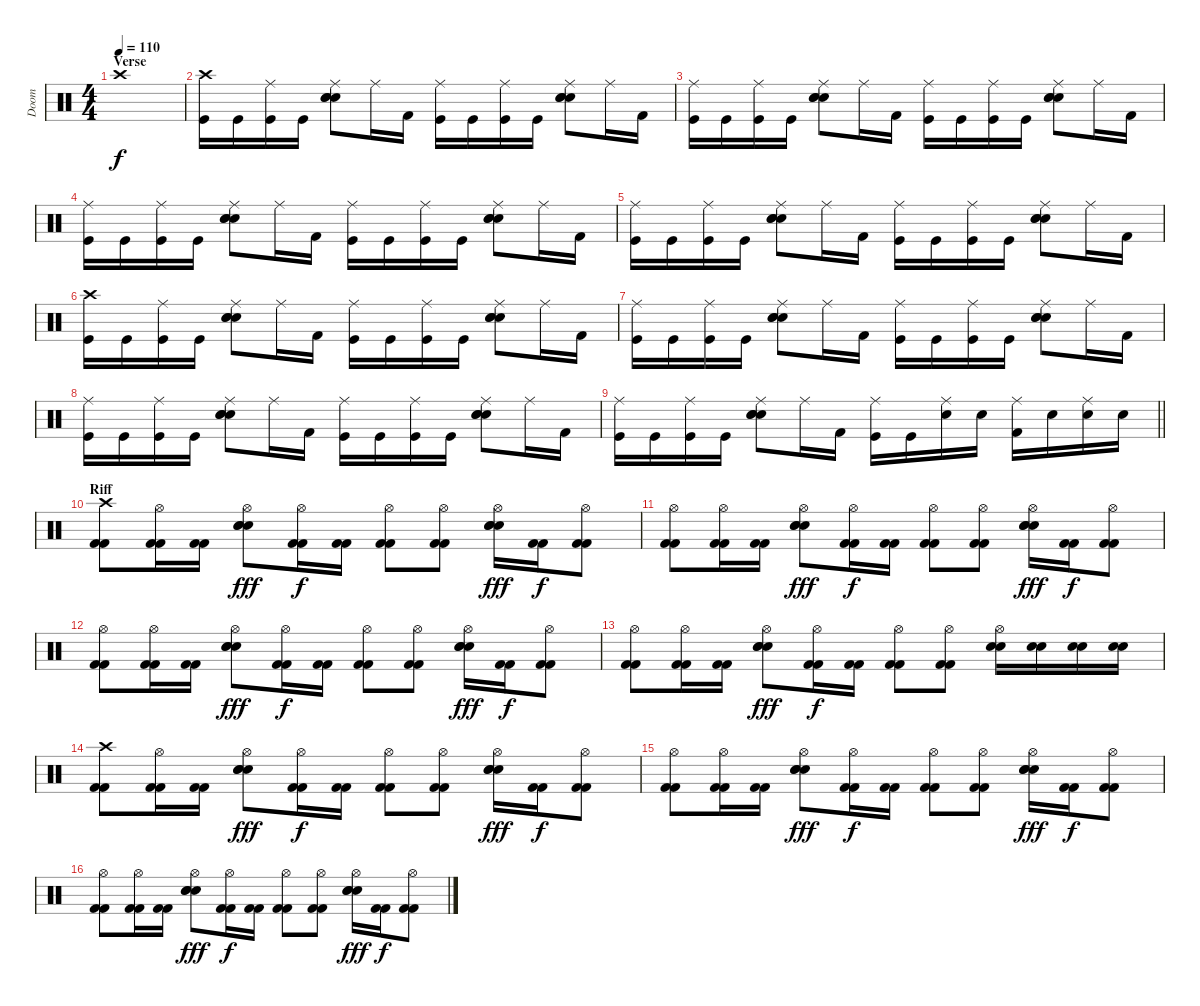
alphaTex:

\track ("Doom" "Doom") {instrument percussion}
\staff {score}
\articulation defaults
\ts (4 4)
\section ("" "Verse")
\tempo 110
\clef neutral
\ks c "Crash high (hit)".1{dy f}
|
("Kick (hit)" "Crash high (hit)").16 "Kick (hit)".16 ("Kick (hit)" "Ride (middle)").16 "Kick (hit)".16 ("Electric Snare (hit)" "Electric Snare (hit)" "Electric Snare (hit)" "Ride (middle)").8 "Ride (middle)".16 "Kick (hit) 2".16 ("Kick (hit)" "Ride (middle)").16 "Kick (hit)".16 ("Kick (hit)" "Ride (middle)").16 "Kick (hit)".16 ("Electric Snare (hit)" "Electric Snare (hit)" "Electric Snare (hit)" "Ride (middle)").8 "Ride (middle)".16 "Kick (hit) 2".16 |
("Kick (hit)" "Ride (middle)").16 "Kick (hit)".16 ("Kick (hit)" "Ride (middle)").16 "Kick (hit)".16 ("Electric Snare (hit)" "Electric Snare (hit)" "Electric Snare (hit)" "Ride (middle)").8 "Ride (middle)".16 "Kick (hit) 2".16 ("Kick (hit)" "Ride (middle)").16 "Kick (hit)".16 ("Kick (hit)" "Ride (middle)").16 "Kick (hit)".16 ("Electric Snare (hit)" "Electric Snare (hit)" "Electric Snare (hit)" "Ride (middle)").8 "Ride (middle)".16 "Kick (hit) 2".16 |
("Kick (hit)" "Ride (middle)").16 "Kick (hit)".16 ("Kick (hit)" "Ride (middle)").16 "Kick (hit)".16 ("Electric Snare (hit)" "Electric Snare (hit)" "Electric Snare (hit)" "Ride (middle)").8 "Ride (middle)".16 "Kick (hit) 2".16 ("Kick (hit)" "Ride (middle)").16 "Kick (hit)".16 ("Kick (hit)" "Ride (middle)").16 "Kick (hit)".16 ("Electric Snare (hit)" "Electric Snare (hit)" "Electric Snare (hit)" "Ride (middle)").8 "Ride (middle)".16 "Kick (hit) 2".16 |
("Kick (hit)" "Ride (middle)").16 "Kick (hit)".16 ("Kick (hit)" "Ride (middle)").16 "Kick (hit)".16 ("Electric Snare (hit)" "Electric Snare (hit)" "Electric Snare (hit)" "Ride (middle)").8 "Ride (middle)".16 "Kick (hit) 2".16 ("Kick (hit)" "Ride (middle)").16 "Kick (hit)".16 ("Kick (hit)" "Ride (middle)").16 "Kick (hit)".16 ("Electric Snare (hit)" "Electric Snare (hit)" "Electric Snare (hit)" "Ride (middle)").8 "Ride (middle)".16 "Kick (hit) 2".16 |
("Kick (hit)" "Crash high (hit)").16 "Kick (hit)".16 ("Kick (hit)" "Ride (middle)").16 "Kick (hit)".16 ("Electric Snare (hit)" "Electric Snare (hit)" "Electric Snare (hit)" "Ride (middle)").8 "Ride (middle)".16 "Kick (hit) 2".16 ("Kick (hit)" "Ride (middle)").16 "Kick (hit)".16 ("Kick (hit)" "Ride (middle)").16 "Kick (hit)".16 ("Electric Snare (hit)" "Electric Snare (hit)" "Electric Snare (hit)" "Ride (middle)").8 "Ride (middle)".16 "Kick (hit) 2".16 |
("Kick (hit)" "Ride (middle)").16 "Kick (hit)".16 ("Kick (hit)" "Ride (middle)").16 "Kick (hit)".16 ("Electric Snare (hit)" "Electric Snare (hit)" "Electric Snare (hit)" "Ride (middle)").8 "Ride (middle)".16 "Kick (hit) 2".16 ("Kick (hit)" "Ride (middle)").16 "Kick (hit)".16 ("Kick (hit)" "Ride (middle)").16 "Kick (hit)".16 ("Electric Snare (hit)" "Electric Snare (hit)" "Electric Snare (hit)" "Ride (middle)").8 "Ride (middle)".16 "Kick (hit) 2".16 |
("Kick (hit)" "Ride (middle)").16 "Kick (hit)".16 ("Kick (hit)" "Ride (middle)").16 "Kick (hit)".16 ("Electric Snare (hit)" "Electric Snare (hit)" "Electric Snare (hit)" "Ride (middle)").8 "Ride (middle)".16 "Kick (hit) 2".16 ("Kick (hit)" "Ride (middle)").16 "Kick (hit)".16 ("Kick (hit)" "Ride (middle)").16 "Kick (hit)".16 ("Electric Snare (hit)" "Electric Snare (hit)" "Electric Snare (hit)" "Ride (middle)").8 "Ride (middle)".16 "Kick (hit) 2".16 |
\barLineRight lightlight
("Kick (hit)" "Ride (middle)").16 "Kick (hit)".16 ("Kick (hit)" "Ride (middle)").16 "Kick (hit)".16 ("Electric Snare (hit)" "Electric Snare (hit)" "Electric Snare (hit)" "Ride (middle)").8 "Ride (middle)".16 "Kick (hit) 2".16 ("Kick (hit)" "Ride (middle)").16 "Kick (hit)".16 ("Electric Snare (hit)" "Ride (middle)").16 "Electric Snare (hit)".16 ("Kick (hit) 2" "Ride (middle)").16 "Electric Snare (hit)".16 ("Electric Snare (hit)" "Ride (middle)").16 "Electric Snare (hit)".16 |
\section ("" "Riff")
("Crash high (hit)" "Kick (hit) 2" "Kick (hit) 2").8 ("Hi-Hat (open)" "Kick (hit) 2" "Kick (hit) 2").16 ("Kick (hit) 2" "Kick (hit) 2").16 ("Hi-Hat (open)" "Electric Snare (hit)" "Electric Snare (hit)" "Electric Snare (hit)").8{dy fff} ("Hi-Hat (open)" "Kick (hit) 2" "Kick (hit) 2").16{dy f} ("Kick (hit) 2" "Kick (hit) 2").16 ("Hi-Hat (open)" "Kick (hit) 2" "Kick (hit) 2").8 ("Hi-Hat (open)" "Kick (hit) 2" "Kick (hit) 2").8 ("Hi-Hat (open)" "Electric Snare (hit)" "Electric Snare (hit)" "Electric Snare (hit)").16{dy fff} ("Kick (hit) 2" "Kick (hit) 2").16{dy f} ("Hi-Hat (open)" "Kick (hit) 2" "Kick (hit) 2").8 |
("Hi-Hat (open)" "Kick (hit) 2" "Kick (hit) 2").8 ("Hi-Hat (open)" "Kick (hit) 2" "Kick (hit) 2").16 ("Kick (hit) 2" "Kick (hit) 2").16 ("Hi-Hat (open)" "Electric Snare (hit)" "Electric Snare (hit)" "Electric Snare (hit)").8{dy fff} ("Hi-Hat (open)" "Kick (hit) 2" "Kick (hit) 2").16{dy f} ("Kick (hit) 2" "Kick (hit) 2").16 ("Hi-Hat (open)" "Kick (hit) 2" "Kick (hit) 2").8 ("Hi-Hat (open)" "Kick (hit) 2" "Kick (hit) 2").8 ("Hi-Hat (open)" "Electric Snare (hit)" "Electric Snare (hit)" "Electric Snare (hit)").16{dy fff} ("Kick (hit) 2" "Kick (hit) 2").16{dy f} ("Hi-Hat (open)" "Kick (hit) 2" "Kick (hit) 2").8 |
("Hi-Hat (open)" "Kick (hit) 2" "Kick (hit) 2").8 ("Hi-Hat (open)" "Kick (hit) 2" "Kick (hit) 2").16 ("Kick (hit) 2" "Kick (hit) 2").16 ("Hi-Hat (open)" "Electric Snare (hit)" "Electric Snare (hit)" "Electric Snare (hit)").8{dy fff} ("Hi-Hat (open)" "Kick (hit) 2" "Kick (hit) 2").16{dy f} ("Kick (hit) 2" "Kick (hit) 2").16 ("Hi-Hat (open)" "Kick (hit) 2" "Kick (hit) 2").8 ("Hi-Hat (open)" "Kick (hit) 2" "Kick (hit) 2").8 ("Hi-Hat (open)" "Electric Snare (hit)" "Electric Snare (hit)" "Electric Snare (hit)").16{dy fff} ("Kick (hit) 2" "Kick (hit) 2").16{dy f} ("Hi-Hat (open)" "Kick (hit) 2" "Kick (hit) 2").8 |
("Hi-Hat (open)" "Kick (hit) 2" "Kick (hit) 2").8 ("Hi-Hat (open)" "Kick (hit) 2" "Kick (hit) 2").16 ("Kick (hit) 2" "Kick (hit) 2").16 ("Hi-Hat (open)" "Electric Snare (hit)" "Electric Snare (hit)" "Electric Snare (hit)").8{dy fff} ("Hi-Hat (open)" "Kick (hit) 2" "Kick (hit) 2").16{dy f} ("Kick (hit) 2" "Kick (hit) 2").16 ("Hi-Hat (open)" "Kick (hit) 2" "Kick (hit) 2").8 ("Hi-Hat (open)" "Kick (hit) 2" "Kick (hit) 2").8 ("Electric Snare (hit)" "Hi-Hat (open)" "Electric Snare (hit)").16 ("Electric Snare (hit)" "Electric Snare (hit)").16 ("Electric Snare (hit)" "Electric Snare (hit)").16 ("Electric Snare (hit)" "Electric Snare (hit)").16 |
("Crash high (hit)" "Kick (hit) 2" "Kick (hit) 2").8 ("Hi-Hat (open)" "Kick (hit) 2" "Kick (hit) 2").16 ("Kick (hit) 2" "Kick (hit) 2").16 ("Hi-Hat (open)" "Electric Snare (hit)" "Electric Snare (hit)" "Electric Snare (hit)").8{dy fff} ("Hi-Hat (open)" "Kick (hit) 2" "Kick (hit) 2").16{dy f} ("Kick (hit) 2" "Kick (hit) 2").16 ("Hi-Hat (open)" "Kick (hit) 2" "Kick (hit) 2").8 ("Hi-Hat (open)" "Kick (hit) 2" "Kick (hit) 2").8 ("Hi-Hat (open)" "Electric Snare (hit)" "Electric Snare (hit)" "Electric Snare (hit)").16{dy fff} ("Kick (hit) 2" "Kick (hit) 2").16{dy f} ("Hi-Hat (open)" "Kick (hit) 2" "Kick (hit) 2").8 |
("Hi-Hat (open)" "Kick (hit) 2" "Kick (hit) 2").8 ("Hi-Hat (open)" "Kick (hit) 2" "Kick (hit) 2").16 ("Kick (hit) 2" "Kick (hit) 2").16 ("Hi-Hat (open)" "Electric Snare (hit)" "Electric Snare (hit)" "Electric Snare (hit)").8{dy fff} ("Hi-Hat (open)" "Kick (hit) 2" "Kick (hit) 2").16{dy f} ("Kick (hit) 2" "Kick (hit) 2").16 ("Hi-Hat (open)" "Kick (hit) 2" "Kick (hit) 2").8 ("Hi-Hat (open)" "Kick (hit) 2" "Kick (hit) 2").8 ("Hi-Hat (open)" "Electric Snare (hit)" "Electric Snare (hit)" "Electric Snare (hit)").16{dy fff} ("Kick (hit) 2" "Kick (hit) 2").16{dy f} ("Hi-Hat (open)" "Kick (hit) 2" "Kick (hit) 2").8 |
("Hi-Hat (open)" "Kick (hit) 2" "Kick (hit) 2").8 ("Hi-Hat (open)" "Kick (hit) 2" "Kick (hit) 2").16 ("Kick (hit) 2" "Kick (hit) 2").16 ("Hi-Hat (open)" "Electric Snare (hit)" "Electric Snare (hit)" "Electric Snare (hit)").8{dy fff} ("Hi-Hat (open)" "Kick (hit) 2" "Kick (hit) 2").16{dy f} ("Kick (hit) 2" "Kick (hit) 2").16 ("Hi-Hat (open)" "Kick (hit) 2" "Kick (hit) 2").8 ("Hi-Hat (open)" "Kick (hit) 2" "Kick (hit) 2").8 ("Hi-Hat (open)" "Electric Snare (hit)" "Electric Snare (hit)" "Electric Snare (hit)").16{dy fff} ("Kick (hit) 2" "Kick (hit) 2").16{dy f} ("Hi-Hat (open)" "Kick (hit) 2" "Kick (hit) 2").8
